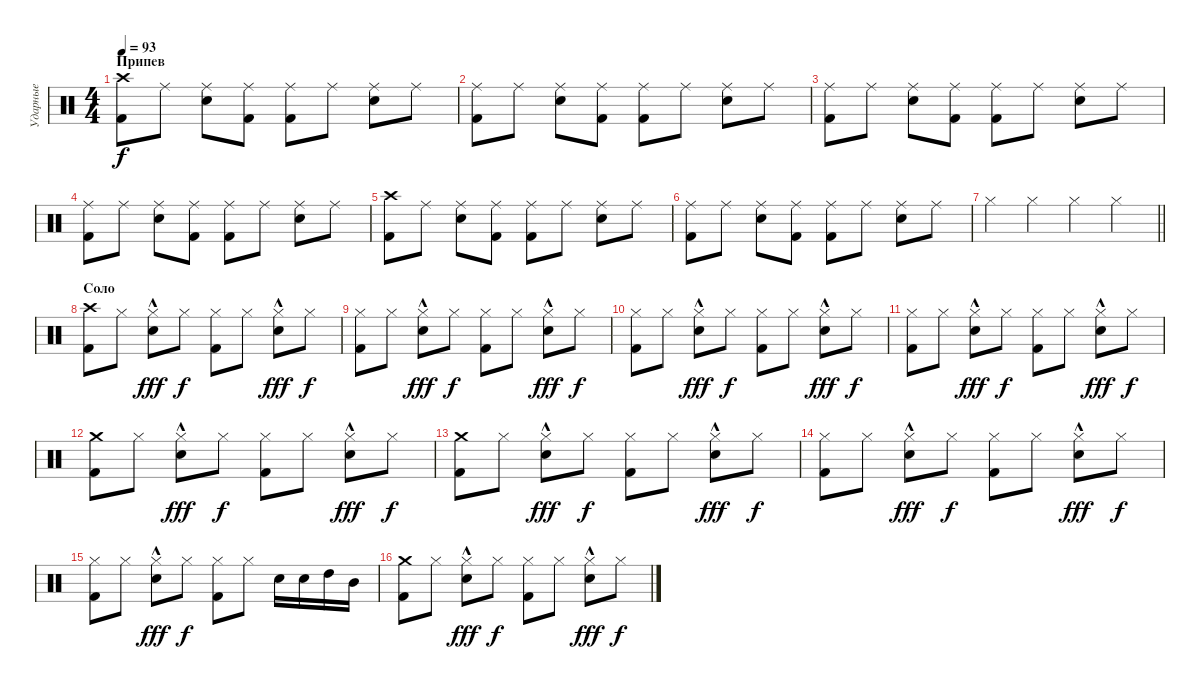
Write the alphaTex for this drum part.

\track ("Ударные" "Ударные") {instrument percussion}
\staff
\articulation defaults
\ts (4 4)
\section ("" "Припев")
\tempo 93
\clef neutral
\ks c
("Crash high (hit)" "Kick (hit) 2").8{dy f} "Ride (middle)".8 ("Ride (middle)" "Electric Snare (hit)").8 ("Ride (middle)" "Kick (hit) 2").8 ("Ride (middle)" "Kick (hit) 2").8 "Ride (middle)".8 ("Ride (middle)" "Electric Snare (hit)").8 "Ride (middle)".8 |
("Ride (middle)" "Kick (hit) 2").8 "Ride (middle)".8 ("Ride (middle)" "Electric Snare (hit)").8 ("Ride (middle)" "Kick (hit) 2").8 ("Ride (middle)" "Kick (hit) 2").8 "Ride (middle)".8 ("Ride (middle)" "Electric Snare (hit)").8 "Ride (middle)".8 |
("Ride (middle)" "Kick (hit) 2").8 "Ride (middle)".8 ("Ride (middle)" "Electric Snare (hit)").8 ("Ride (middle)" "Kick (hit) 2").8 ("Ride (middle)" "Kick (hit) 2").8 "Ride (middle)".8 ("Ride (middle)" "Electric Snare (hit)").8 "Ride (middle)".8 |
("Ride (middle)" "Kick (hit) 2").8 "Ride (middle)".8 ("Ride (middle)" "Electric Snare (hit)").8 ("Ride (middle)" "Kick (hit) 2").8 ("Ride (middle)" "Kick (hit) 2").8 "Ride (middle)".8 ("Ride (middle)" "Electric Snare (hit)").8 "Ride (middle)".8 |
("Crash high (hit)" "Kick (hit) 2").8 "Ride (middle)".8 ("Ride (middle)" "Electric Snare (hit)").8 ("Ride (middle)" "Kick (hit) 2").8 ("Ride (middle)" "Kick (hit) 2").8 "Ride (middle)".8 ("Ride (middle)" "Electric Snare (hit)").8 "Ride (middle)".8 |
("Ride (middle)" "Kick (hit) 2").8 "Ride (middle)".8 ("Ride (middle)" "Electric Snare (hit)").8 ("Ride (middle)" "Kick (hit) 2").8 ("Ride (middle)" "Kick (hit) 2").8 "Ride (middle)".8 ("Ride (middle)" "Electric Snare (hit)").8 "Ride (middle)".8 |
\barLineRight lightlight "Hi-Hat (closed)".4 "Hi-Hat (closed)".4 "Hi-Hat (closed)".4 "Hi-Hat (closed)".4
|
\section ("" "Соло")
("Crash high (hit)" "Kick (hit) 2").8 "Hi-Hat (closed)".8 ("Hi-Hat (closed)"{hac} "Electric Snare (hit)").8{dy fff} "Hi-Hat (closed)".8{dy f} ("Hi-Hat (closed)" "Kick (hit) 2").8 "Hi-Hat (closed)".8 ("Hi-Hat (closed)"{hac} "Electric Snare (hit)").8{dy fff} "Hi-Hat (closed)".8{dy f} |
("Hi-Hat (closed)" "Kick (hit) 2").8 "Hi-Hat (closed)".8 ("Hi-Hat (closed)"{hac} "Electric Snare (hit)").8{dy fff} "Hi-Hat (closed)".8{dy f} ("Hi-Hat (closed)" "Kick (hit) 2").8 "Hi-Hat (closed)".8 ("Hi-Hat (closed)"{hac} "Electric Snare (hit)").8{dy fff} "Hi-Hat (closed)".8{dy f} |
("Hi-Hat (closed)" "Kick (hit) 2").8 "Hi-Hat (closed)".8 ("Hi-Hat (closed)"{hac} "Electric Snare (hit)").8{dy fff} "Hi-Hat (closed)".8{dy f} ("Hi-Hat (closed)" "Kick (hit) 2").8 "Hi-Hat (closed)".8 ("Hi-Hat (closed)"{hac} "Electric Snare (hit)").8{dy fff} "Hi-Hat (closed)".8{dy f} |
("Hi-Hat (closed)" "Kick (hit) 2").8 "Hi-Hat (closed)".8 ("Hi-Hat (closed)"{hac} "Electric Snare (hit)").8{dy fff} "Hi-Hat (closed)".8{dy f} ("Hi-Hat (closed)" "Kick (hit) 2").8 "Hi-Hat (closed)".8 ("Hi-Hat (closed)"{hac} "Electric Snare (hit)").8{dy fff} "Hi-Hat (closed)".8{dy f} |
("Crash medium (hit)" "Kick (hit) 2").8 "Hi-Hat (closed)".8 ("Hi-Hat (closed)"{hac} "Electric Snare (hit)").8{dy fff} "Hi-Hat (closed)".8{dy f} ("Hi-Hat (closed)" "Kick (hit) 2").8 "Hi-Hat (closed)".8 ("Hi-Hat (closed)"{hac} "Electric Snare (hit)").8{dy fff} "Hi-Hat (closed)".8{dy f} |
("Crash medium (hit)" "Kick (hit) 2").8 "Hi-Hat (closed)".8 ("Hi-Hat (closed)"{hac} "Electric Snare (hit)").8{dy fff} "Hi-Hat (closed)".8{dy f} ("Hi-Hat (closed)" "Kick (hit) 2").8 "Hi-Hat (closed)".8 ("Hi-Hat (closed)"{hac} "Electric Snare (hit)").8{dy fff} "Hi-Hat (closed)".8{dy f} |
("Hi-Hat (closed)" "Kick (hit) 2").8 "Hi-Hat (closed)".8 ("Hi-Hat (closed)"{hac} "Electric Snare (hit)").8{dy fff} "Hi-Hat (closed)".8{dy f} ("Hi-Hat (closed)" "Kick (hit) 2").8 "Hi-Hat (closed)".8 ("Hi-Hat (closed)"{hac} "Electric Snare (hit)").8{dy fff} "Hi-Hat (closed)".8{dy f} |
("Hi-Hat (closed)" "Kick (hit) 2").8 "Hi-Hat (closed)".8 ("Hi-Hat (closed)"{hac} "Electric Snare (hit)").8{dy fff} "Hi-Hat (closed)".8{dy f} ("Hi-Hat (closed)" "Kick (hit) 2").8 "Hi-Hat (closed)".8 "Electric Snare (hit)".16 "Electric Snare (hit)".16 "High Tom (hit)".16 "Mid Tom (hit)".16 |
("Crash medium (hit)" "Kick (hit) 2").8 "Hi-Hat (closed)".8 ("Hi-Hat (closed)"{hac} "Electric Snare (hit)").8{dy fff} "Hi-Hat (closed)".8{dy f} ("Hi-Hat (closed)" "Kick (hit) 2").8 "Hi-Hat (closed)".8 ("Hi-Hat (closed)"{hac} "Electric Snare (hit)").8{dy fff} "Hi-Hat (closed)".8{dy f}
